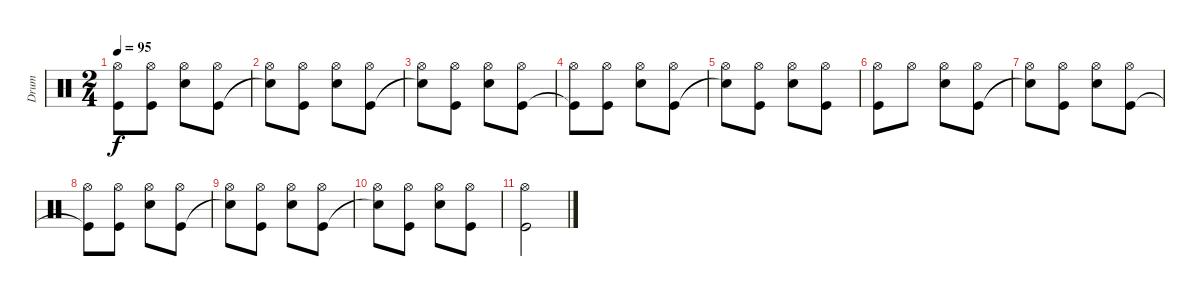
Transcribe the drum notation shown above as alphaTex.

\track ("Drum" "Drum") {instrument percussion}
\staff {score}
\articulation defaults
\ts (2 4)
\tempo 95
\clef neutral
\ks c
("Kick (hit)"{t} "Hi-Hat (open)").8{dy f} ("Kick (hit)" "Hi-Hat (open)").8 ("Electric Snare (hit)" "Hi-Hat (open)").8 ("Kick (hit)" "Hi-Hat (open)").8 |
("Snare (hit)"{t} "Hi-Hat (open)").8 ("Kick (hit)" "Hi-Hat (open)").8 ("Electric Snare (hit)" "Hi-Hat (open)").8 ("Kick (hit)" "Hi-Hat (open)").8 |
("Snare (hit)"{t} "Hi-Hat (open)").8 ("Kick (hit)" "Hi-Hat (open)").8 ("Electric Snare (hit)" "Hi-Hat (open)").8 ("Kick (hit)" "Hi-Hat (open)").8 |
("Kick (hit)"{t} "Hi-Hat (open)").8 ("Kick (hit)" "Hi-Hat (open)").8 ("Electric Snare (hit)" "Hi-Hat (open)").8 ("Kick (hit)" "Hi-Hat (open)").8 |
("Snare (hit)"{t} "Hi-Hat (open)").8 ("Kick (hit)" "Hi-Hat (open)").8 ("Electric Snare (hit)" "Hi-Hat (open)").8 ("Kick (hit)" "Hi-Hat (open)").8 |
("Kick (hit)" "Hi-Hat (open)").8 "Hi-Hat (open)".8 ("Electric Snare (hit)" "Hi-Hat (open)").8 ("Kick (hit)" "Hi-Hat (open)").8 |
("Snare (hit)"{t} "Hi-Hat (open)").8 ("Kick (hit)" "Hi-Hat (open)").8 ("Electric Snare (hit)" "Hi-Hat (open)").8 ("Kick (hit)" "Hi-Hat (open)").8 |
("Kick (hit)"{t} "Hi-Hat (open)").8 ("Kick (hit)" "Hi-Hat (open)").8 ("Electric Snare (hit)" "Hi-Hat (open)").8 ("Kick (hit)" "Hi-Hat (open)").8 |
("Snare (hit)"{t} "Hi-Hat (open)").8 ("Kick (hit)" "Hi-Hat (open)").8 ("Electric Snare (hit)" "Hi-Hat (open)").8 ("Kick (hit)" "Hi-Hat (open)").8 |
("Snare (hit)"{t} "Hi-Hat (open)").8 ("Kick (hit)" "Hi-Hat (open)").8 ("Electric Snare (hit)" "Hi-Hat (open)").8 ("Kick (hit)" "Hi-Hat (open)").8 |
("Kick (hit)" "Hi-Hat (open)").2
